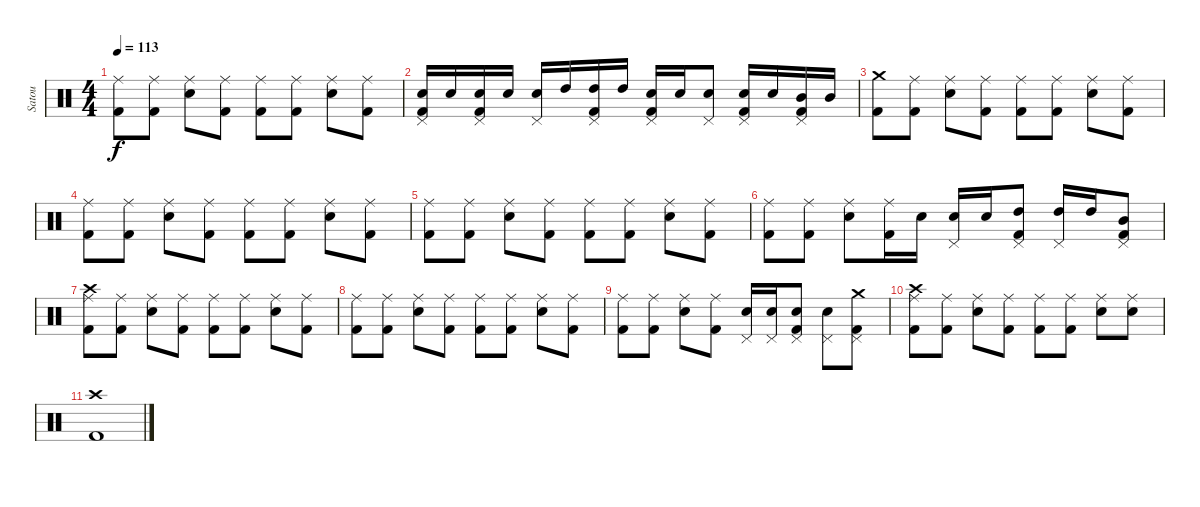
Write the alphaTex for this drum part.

\track ("Satou" "Satou") {instrument percussion}
\staff {score}
\articulation defaults
\ts (4 4)
\tempo 113
\clef neutral
\ks c
("Ride (middle)" "Kick (hit) 2").8{dy f} ("Ride (middle)" "Kick (hit) 2").8 ("Ride (middle)" "Electric Snare (hit)").8 ("Ride (middle)" "Kick (hit) 2").8 ("Ride (middle)" "Kick (hit) 2").8 ("Ride (middle)" "Kick (hit) 2").8 ("Ride (middle)" "Electric Snare (hit)").8 ("Ride (middle)" "Kick (hit) 2").8 |
("Pedal Hi-Hat (hit)" "Electric Snare (hit)" "Kick (hit) 2").16 "Electric Snare (hit)".16 ("Pedal Hi-Hat (hit)" "Electric Snare (hit)" "Kick (hit) 2").16 "Electric Snare (hit)".16 ("Pedal Hi-Hat (hit)" "Electric Snare (hit)").16 "High Tom (hit)".16 ("Pedal Hi-Hat (hit)" "High Tom (hit)" "Kick (hit) 2").16 "High Tom (hit)".16 ("Pedal Hi-Hat (hit)" "Electric Snare (hit)" "Kick (hit) 2").16 "Electric Snare (hit)".16 ("Pedal Hi-Hat (hit)" "Electric Snare (hit)").8 ("Pedal Hi-Hat (hit)" "Electric Snare (hit)" "Kick (hit) 2").16 "Electric Snare (hit)".16 ("Pedal Hi-Hat (hit)" "Mid Tom (hit)" "Kick (hit) 2").16 "Mid Tom (hit)".16 |
("Crash medium (hit)" "Kick (hit) 2").8 ("Ride (middle)" "Kick (hit) 2").8 ("Ride (middle)" "Electric Snare (hit)").8 ("Ride (middle)" "Kick (hit) 2").8 ("Ride (middle)" "Kick (hit) 2").8 ("Ride (middle)" "Kick (hit) 2").8 ("Ride (middle)" "Electric Snare (hit)").8 ("Ride (middle)" "Kick (hit) 2").8 |
("Ride (middle)" "Kick (hit) 2").8 ("Ride (middle)" "Kick (hit) 2").8 ("Ride (middle)" "Electric Snare (hit)").8 ("Ride (middle)" "Kick (hit) 2").8 ("Ride (middle)" "Kick (hit) 2").8 ("Ride (middle)" "Kick (hit) 2").8 ("Ride (middle)" "Electric Snare (hit)").8 ("Ride (middle)" "Kick (hit) 2").8 |
("Ride (middle)" "Kick (hit) 2").8 ("Ride (middle)" "Kick (hit) 2").8 ("Ride (middle)" "Electric Snare (hit)").8 ("Ride (middle)" "Kick (hit) 2").8 ("Ride (middle)" "Kick (hit) 2").8 ("Ride (middle)" "Kick (hit) 2").8 ("Ride (middle)" "Electric Snare (hit)").8 ("Ride (middle)" "Kick (hit) 2").8 |
("Ride (middle)" "Kick (hit) 2").8 ("Ride (middle)" "Kick (hit) 2").8 ("Ride (middle)" "Electric Snare (hit)").8 ("Ride (middle)" "Kick (hit) 2").16 "Electric Snare (hit)".16 ("Pedal Hi-Hat (hit)" "Electric Snare (hit)").16 "Electric Snare (hit)".16 ("Pedal Hi-Hat (hit)" "High Tom (hit)" "Kick (hit) 2").8 ("Pedal Hi-Hat (hit)" "High Tom (hit)").16 "High Tom (hit)".16 ("Pedal Hi-Hat (hit)" "Mid Tom (hit)" "Kick (hit) 2").8 |
("Crash high (hit)" "Ride (middle)" "Kick (hit) 2").8 ("Ride (middle)" "Kick (hit) 2").8 ("Ride (middle)" "Electric Snare (hit)").8 ("Ride (middle)" "Kick (hit) 2").8 ("Ride (middle)" "Kick (hit) 2").8 ("Ride (middle)" "Kick (hit) 2").8 ("Ride (middle)" "Electric Snare (hit)").8 ("Ride (middle)" "Kick (hit) 2").8 |
("Ride (middle)" "Kick (hit) 2").8 ("Ride (middle)" "Kick (hit) 2").8 ("Ride (middle)" "Electric Snare (hit)").8 ("Ride (middle)" "Kick (hit) 2").8 ("Ride (middle)" "Kick (hit) 2").8 ("Ride (middle)" "Kick (hit) 2").8 ("Ride (middle)" "Electric Snare (hit)").8 ("Ride (middle)" "Kick (hit) 2").8 |
("Ride (middle)" "Kick (hit) 2").8 ("Ride (middle)" "Kick (hit) 2").8 ("Ride (middle)" "Electric Snare (hit)").8 ("Ride (middle)" "Kick (hit) 2").8 ("Pedal Hi-Hat (hit)" "Electric Snare (hit)").16 ("Pedal Hi-Hat (hit)" "Electric Snare (hit)").16 ("Pedal Hi-Hat (hit)" "Electric Snare (hit)" "Kick (hit) 2").8 ("Pedal Hi-Hat (hit)" "Electric Snare (hit)").8 ("Crash medium (hit)" "Pedal Hi-Hat (hit)" "Kick (hit) 2").8 |
("Crash high (hit)" "Ride (middle)" "Kick (hit) 2").8 ("Ride (middle)" "Kick (hit) 2").8 ("Ride (middle)" "Electric Snare (hit)").8 ("Ride (middle)" "Kick (hit) 2").8 ("Ride (middle)" "Kick (hit) 2").8 ("Ride (middle)" "Kick (hit) 2").8 ("Ride (middle)" "Electric Snare (hit)").8 ("Ride (middle)" "Electric Snare (hit)").8 |
("Crash high (hit)" "Kick (hit) 2").1
